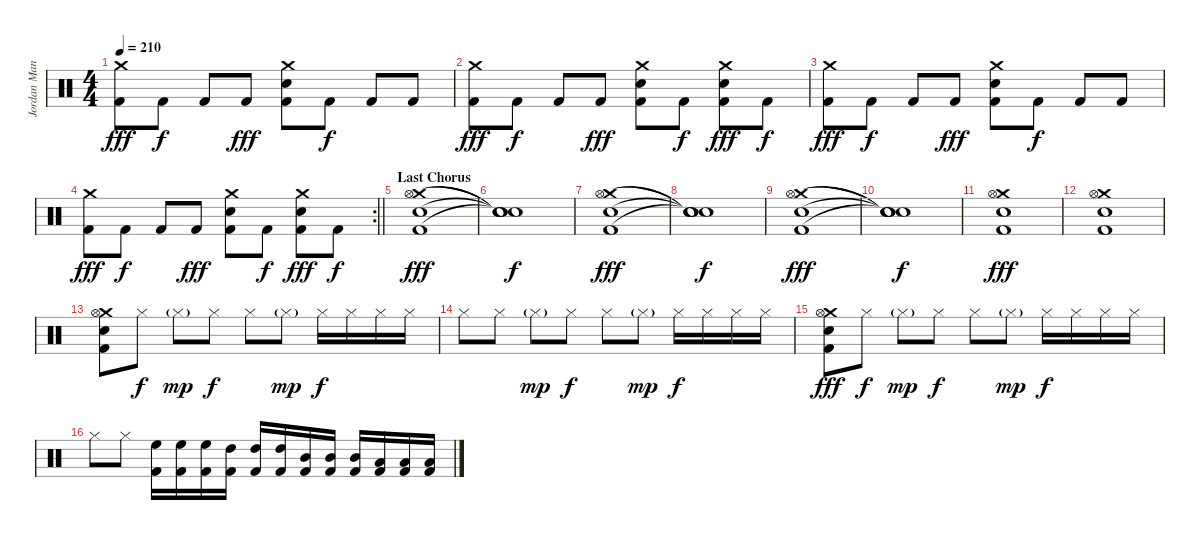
\track ("Jordan Mancino" "Jordan Man") {instrument percussion}
\staff {score}
\articulation defaults
\ts (4 4)
\tempo 210
\clef neutral
\ks c
("Crash medium (hit)" "Kick (hit) 2").8{dy fff} "Kick (hit) 2".8{dy f} "Kick (hit) 2".8 "Kick (hit) 2".8{dy fff} ("Crash medium (hit)" "Snare (hit) 2" "Kick (hit) 2").8 "Kick (hit) 2".8{dy f} "Kick (hit) 2".8 "Kick (hit) 2".8 |
("Crash medium (hit)" "Kick (hit) 2").8{dy fff} "Kick (hit) 2".8{dy f} "Kick (hit) 2".8 "Kick (hit) 2".8{dy fff} ("Crash medium (hit)" "Snare (hit) 2" "Kick (hit) 2").8 "Kick (hit) 2".8{dy f} ("Crash medium (hit)" "Snare (hit) 2" "Kick (hit) 2").8{dy fff} "Kick (hit) 2".8{dy f} |
("Crash medium (hit)" "Kick (hit) 2").8{dy fff} "Kick (hit) 2".8{dy f} "Kick (hit) 2".8 "Kick (hit) 2".8{dy fff} ("Crash medium (hit)" "Snare (hit) 2" "Kick (hit) 2").8 "Kick (hit) 2".8{dy f} "Kick (hit) 2".8 "Kick (hit) 2".8 |
\rc 2
\barLineRight lightlight
("Crash medium (hit)" "Kick (hit) 2").8{dy fff} "Kick (hit) 2".8{dy f} "Kick (hit) 2".8 "Kick (hit) 2".8{dy fff} ("Crash medium (hit)" "Snare (hit) 2" "Kick (hit) 2").8 "Kick (hit) 2".8{dy f} ("Crash medium (hit)" "Snare (hit) 2" "Kick (hit) 2").8{dy fff} "Kick (hit) 2".8{dy f} |
\section ("" "Last Chorus")
("Crash medium (hit)" "Kick (hit) 2" "Snare (hit) 2" "Hi-Hat (open)").1{dy fff} |
("Snare (hit)"{t} "Snare (hit)"{t} "Snare (hit)"{t} "Snare (hit)"{t}).1{dy f} |
("Crash medium (hit)" "Kick (hit) 2" "Snare (hit) 2" "Hi-Hat (open)").1{dy fff} |
("Snare (hit)"{t} "Snare (hit)"{t} "Snare (hit)"{t} "Snare (hit)"{t}).1{dy f} |
("Crash medium (hit)" "Kick (hit) 2" "Snare (hit) 2" "Hi-Hat (open)").1{dy fff} |
("Snare (hit)"{t} "Snare (hit)"{t} "Snare (hit)"{t} "Snare (hit)"{t}).1{dy f} |
("Crash medium (hit)" "Kick (hit) 2" "Snare (hit) 2" "Hi-Hat (open)").1{dy fff} |
("Crash medium (hit)" "Kick (hit) 2" "Snare (hit) 2" "Hi-Hat (open)").1 |
("Crash medium (hit)" "Kick (hit) 2" "Snare (hit) 2" "Hi-Hat (open)").8 "Hi-Hat (closed)".8{dy f} "Hi-Hat (closed)"{g}.8{dy mp} "Hi-Hat (closed)".8{dy f} "Hi-Hat (closed)".8 "Hi-Hat (closed)"{g}.8{dy mp} "Hi-Hat (closed)".16{dy f} "Hi-Hat (closed)".16 "Hi-Hat (closed)".16 "Hi-Hat (closed)".16 |
"Hi-Hat (closed)".8 "Hi-Hat (closed)".8 "Hi-Hat (closed)"{g}.8{dy mp} "Hi-Hat (closed)".8{dy f} "Hi-Hat (closed)".8 "Hi-Hat (closed)"{g}.8{dy mp} "Hi-Hat (closed)".16{dy f} "Hi-Hat (closed)".16 "Hi-Hat (closed)".16 "Hi-Hat (closed)".16 |
("Crash medium (hit)" "Kick (hit) 2" "Snare (hit) 2" "Hi-Hat (open)").8{dy fff} "Hi-Hat (closed)".8{dy f} "Hi-Hat (closed)"{g}.8{dy mp} "Hi-Hat (closed)".8{dy f} "Hi-Hat (closed)".8 "Hi-Hat (closed)"{g}.8{dy mp} "Hi-Hat (closed)".16{dy f} "Hi-Hat (closed)".16 "Hi-Hat (closed)".16 "Hi-Hat (closed)".16 |
"Hi-Hat (closed)".8 "Hi-Hat (closed)".8 ("High Floor Tom (hit)" "Kick (hit) 2").16 ("High Floor Tom (hit)" "Kick (hit) 2").16 ("High Floor Tom (hit)" "Kick (hit) 2").16 ("High Tom (hit)" "Kick (hit) 2").16 ("High Tom (hit)" "Kick (hit) 2").16 ("High Tom (hit)" "Kick (hit) 2").16 ("Mid Tom (hit)" "Kick (hit) 2").16 ("Mid Tom (hit)" "Kick (hit) 2").16 ("Mid Tom (hit)" "Kick (hit) 2").16 ("Low Tom (hit)" "Kick (hit) 2").16 ("Low Tom (hit)" "Kick (hit) 2").16 ("Low Tom (hit)" "Kick (hit) 2").16
